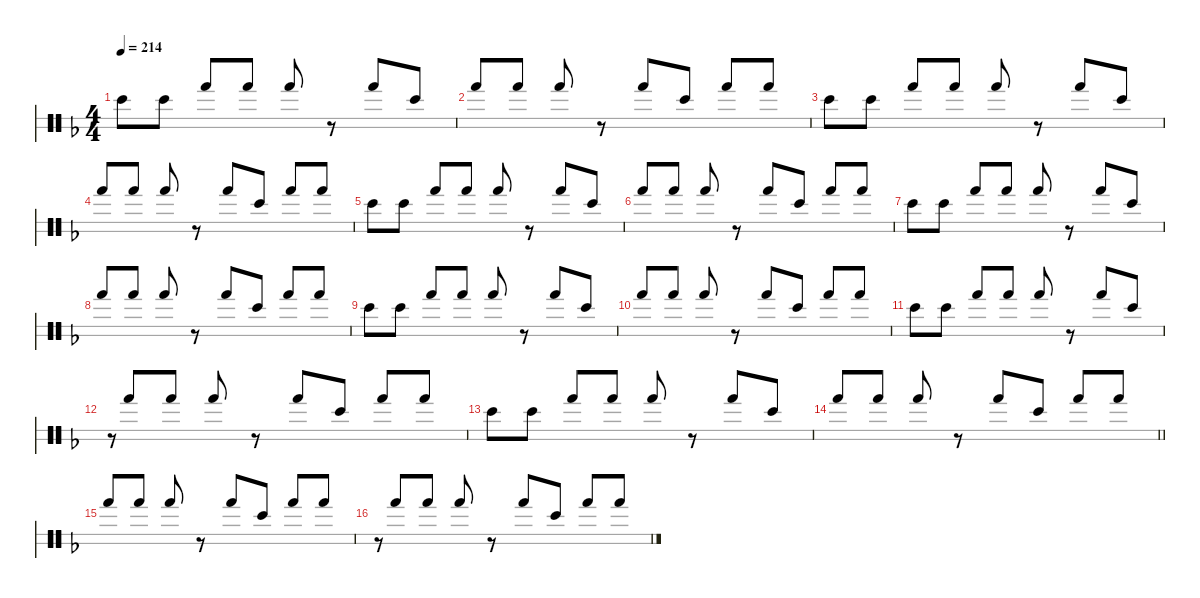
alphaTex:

\hideDynamics
\bracketExtendMode nobrackets
\singleTrackTrackNamePolicy hidden
\multiTrackTrackNamePolicy hidden
\firstSystemTrackNameMode fullname
\firstSystemTrackNameOrientation horizontal
\otherSystemsTrackNameOrientation horizontal
\track ("Bongos" "bngKit") {instrument percussion}
\staff {score 2}
\articulation defaults
\ts (4 4)
\tempo 214
\clef neutral
\ks dminor "Bongo High (hit)"{acc forcenatural}.8{dy mp beam Down} "Bongo High (hit)"{acc forcenatural}.8{beam Down} "Hand (hit)"{acc forcenatural}.8{dy p beam Up} "Hand (hit)"{acc forcenatural}.8{beam Up} "Hand (hit)"{acc forcenatural}.8{dy mp beam Up}
r.8{beam Up} "Hand (hit)"{acc forcenatural}.8{beam Up} "Bongo High (hit)"{acc forcenatural}.8{beam Up} |
"Hand (hit)"{acc forcenatural}.8{dy p beam Up} "Hand (hit)"{acc forcenatural}.8{beam Up} "Hand (hit)"{acc forcenatural}.8{dy mp beam Up} r.8{beam Up} "Hand (hit)"{acc forcenatural}.8{beam Up} "Bongo High (hit)"{acc forcenatural}.8{beam Up} "Hand (hit)"{acc forcenatural}.8{dy p beam Up} "Hand (hit)"{acc forcenatural}.8{beam Up} |
"Bongo High (hit)"{acc forcenatural}.8{dy mp beam Down} "Bongo High (hit)"{acc forcenatural}.8{beam Down} "Hand (hit)"{acc forcenatural}.8{dy p beam Up} "Hand (hit)"{acc forcenatural}.8{beam Up} "Hand (hit)"{acc forcenatural}.8{dy mp beam Up} r.8{beam Up} "Hand (hit)"{acc forcenatural}.8{beam Up} "Bongo High (hit)"{acc forcenatural}.8{beam Up} |
"Hand (hit)"{acc forcenatural}.8{dy p beam Up} "Hand (hit)"{acc forcenatural}.8{beam Up} "Hand (hit)"{acc forcenatural}.8{dy mp beam Up} r.8{beam Up} "Hand (hit)"{acc forcenatural}.8{beam Up} "Bongo High (hit)"{acc forcenatural}.8{beam Up} "Hand (hit)"{acc forcenatural}.8{dy p beam Up} "Hand (hit)"{acc forcenatural}.8{beam Up} |
"Bongo High (hit)"{acc forcenatural}.8{dy mp beam Down} "Bongo High (hit)"{acc forcenatural}.8{beam Down} "Hand (hit)"{acc forcenatural}.8{dy p beam Up} "Hand (hit)"{acc forcenatural}.8{beam Up} "Hand (hit)"{acc forcenatural}.8{dy mp beam Up} r.8{beam Up} "Hand (hit)"{acc forcenatural}.8{beam Up} "Bongo High (hit)"{acc forcenatural}.8{beam Up} |
"Hand (hit)"{acc forcenatural}.8{dy p beam Up} "Hand (hit)"{acc forcenatural}.8{beam Up} "Hand (hit)"{acc forcenatural}.8{dy mp beam Up} r.8{beam Up} "Hand (hit)"{acc forcenatural}.8{beam Up} "Bongo High (hit)"{acc forcenatural}.8{beam Up} "Hand (hit)"{acc forcenatural}.8{dy p beam Up} "Hand (hit)"{acc forcenatural}.8{beam Up} |
"Bongo High (hit)"{acc forcenatural}.8{dy mp beam Down} "Bongo High (hit)"{acc forcenatural}.8{beam Down} "Hand (hit)"{acc forcenatural}.8{dy p beam Up} "Hand (hit)"{acc forcenatural}.8{beam Up} "Hand (hit)"{acc forcenatural}.8{dy mp beam Up} r.8{beam Up} "Hand (hit)"{acc forcenatural}.8{beam Up} "Bongo High (hit)"{acc forcenatural}.8{beam Up} |
"Hand (hit)"{acc forcenatural}.8{dy p beam Up} "Hand (hit)"{acc forcenatural}.8{beam Up} "Hand (hit)"{acc forcenatural}.8{dy mp beam Up} r.8{beam Up} "Hand (hit)"{acc forcenatural}.8{beam Up} "Bongo High (hit)"{acc forcenatural}.8{beam Up} "Hand (hit)"{acc forcenatural}.8{dy p beam Up} "Hand (hit)"{acc forcenatural}.8{beam Up} |
"Bongo High (hit)"{acc forcenatural}.8{dy mp beam Down} "Bongo High (hit)"{acc forcenatural}.8{beam Down} "Hand (hit)"{acc forcenatural}.8{dy p beam Up} "Hand (hit)"{acc forcenatural}.8{beam Up} "Hand (hit)"{acc forcenatural}.8{dy mp beam Up} r.8{beam Up} "Hand (hit)"{acc forcenatural}.8{beam Up} "Bongo High (hit)"{acc forcenatural}.8{beam Up} |
"Hand (hit)"{acc forcenatural}.8{dy p beam Up} "Hand (hit)"{acc forcenatural}.8{beam Up} "Hand (hit)"{acc forcenatural}.8{dy mp beam Up} r.8{beam Up} "Hand (hit)"{acc forcenatural}.8{beam Up} "Bongo High (hit)"{acc forcenatural}.8{beam Up} "Hand (hit)"{acc forcenatural}.8{dy p beam Up} "Hand (hit)"{acc forcenatural}.8{beam Up} |
"Bongo High (hit)"{acc forcenatural}.8{dy mp beam Down} "Bongo High (hit)"{acc forcenatural}.8{beam Down} "Hand (hit)"{acc forcenatural}.8{dy p beam Up} "Hand (hit)"{acc forcenatural}.8{beam Up} "Hand (hit)"{acc forcenatural}.8{dy mp beam Up} r.8{beam Up} "Hand (hit)"{acc forcenatural}.8{beam Up} "Bongo High (hit)"{acc forcenatural}.8{beam Up} |
r.8{gr beam Up} "Hand (hit)"{acc forcenatural}.8{dy p beam Up} "Hand (hit)"{acc forcenatural}.8{beam Up} "Hand (hit)"{acc forcenatural}.8{dy mp beam Up} r.8{beam Up} "Hand (hit)"{acc forcenatural}.8{beam Up} "Bongo High (hit)"{acc forcenatural}.8{beam Up} "Hand (hit)"{acc forcenatural}.8{dy p beam Up} "Hand (hit)"{acc forcenatural}.8{beam Up} |
"Bongo High (hit)"{acc forcenatural}.8{dy mp beam Down} "Bongo High (hit)"{acc forcenatural}.8{beam Down} "Hand (hit)"{acc forcenatural}.8{dy p beam Up} "Hand (hit)"{acc forcenatural}.8{beam Up} "Hand (hit)"{acc forcenatural}.8{dy mp beam Up} r.8{beam Up} "Hand (hit)"{acc forcenatural}.8{beam Up} "Bongo High (hit)"{acc forcenatural}.8{beam Up} |
\barLineRight lightlight "Hand (hit)"{acc forcenatural}.8{dy p beam Up} "Hand (hit)"{acc forcenatural}.8{beam Up} "Hand (hit)"{acc forcenatural}.8{dy mp beam Up}
r.8{beam Up} "Hand (hit)"{acc forcenatural}.8{beam Up} "Bongo High (hit)"{acc forcenatural}.8{beam Up} "Hand (hit)"{acc forcenatural}.8{dy p beam Up} "Hand (hit)"{acc forcenatural}.8{beam Up} |
"Hand (hit)"{acc forcenatural}.8{beam Up} "Hand (hit)"{acc forcenatural}.8{beam Up} "Hand (hit)"{acc forcenatural}.8{dy mp beam Up} r.8{beam Up} "Hand (hit)"{acc forcenatural}.8{beam Up} "Bongo High (hit)"{acc forcenatural}.8{beam Up} "Hand (hit)"{acc forcenatural}.8{beam Up} "Hand (hit)"{acc forcenatural}.8{dy p beam Up} |
r.8{gr beam Up} "Hand (hit)"{acc forcenatural}.8{beam Up} "Hand (hit)"{acc forcenatural}.8{beam Up} "Hand (hit)"{acc forcenatural}.8{dy mp beam Up} r.8{beam Up} "Hand (hit)"{acc forcenatural}.8{beam Up} "Bongo High (hit)"{acc forcenatural}.8{beam Up} "Hand (hit)"{acc forcenatural}.8{beam Up} "Hand (hit)"{acc forcenatural}.8{dy p beam Up}
